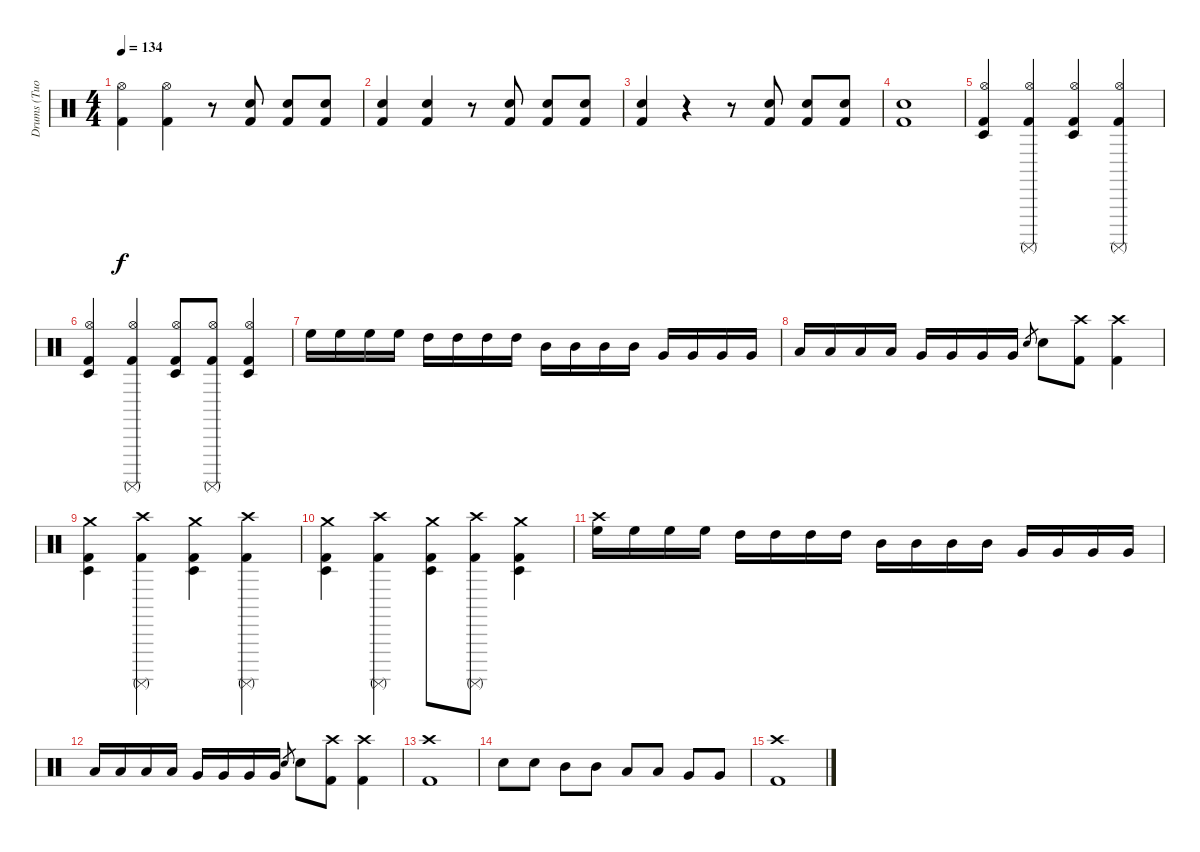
\track ("Drums (Tuomo Lassila)" "Drums (Tuo") {instrument percussion}
\staff {score}
\articulation defaults
\ts (4 4)
\tempo 134
\clef neutral
\ks c
("Hi-Hat (open)" "Kick (hit) 2").4{dy f} ("Hi-Hat (open)" "Kick (hit) 2").4 r.8 ("Snare (hit) 2" "Kick (hit) 2").8 ("Snare (hit) 2" "Kick (hit) 2").8 ("Snare (hit) 2" "Kick (hit) 2").8 |
("Snare (hit) 2" "Kick (hit) 2").4 ("Snare (hit) 2" "Kick (hit) 2").4 r.8 ("Snare (hit) 2" "Kick (hit) 2").8 ("Snare (hit) 2" "Kick (hit) 2").8 ("Snare (hit) 2" "Kick (hit) 2").8 |
("Snare (hit) 2" "Kick (hit) 2").4 r.4 r.8 ("Snare (hit) 2" "Kick (hit) 2").8 ("Snare (hit) 2" "Kick (hit) 2").8 ("Snare (hit) 2" "Kick (hit) 2").8 |
("Snare (hit) 2" "Kick (hit) 2").1 |
("Hi-Hat (open)" "Timbale low (hit)" "Kick (hit) 2").4 ("Hi-Hat (open)" "Surdo (mute)" "Kick (hit) 2").4 ("Hi-Hat (open)" "Timbale low (hit)" "Kick (hit) 2").4 ("Hi-Hat (open)" "Surdo (mute)" "Kick (hit) 2").4 |
("Hi-Hat (open)" "Timbale low (hit)" "Kick (hit) 2").4 ("Hi-Hat (open)" "Surdo (mute)" "Kick (hit) 2").4 ("Hi-Hat (open)" "Timbale low (hit)" "Kick (hit) 2").8 ("Hi-Hat (open)" "Surdo (mute)" "Kick (hit) 2").8 ("Hi-Hat (open)" "Timbale low (hit)" "Kick (hit) 2").4 |
"High Floor Tom (hit)".16 "High Floor Tom (hit)".16 "High Floor Tom (hit)".16 "High Floor Tom (hit)".16 "High Tom (hit)".16 "High Tom (hit)".16 "High Tom (hit)".16 "High Tom (hit)".16 "Mid Tom (hit)".16 "Mid Tom (hit)".16 "Mid Tom (hit)".16 "Mid Tom (hit)".16 "Very Low Tom (hit)".16 "Very Low Tom (hit)".16 "Very Low Tom (hit)".16 "Very Low Tom (hit)".16 |
"Low Tom (hit)".16 "Low Tom (hit)".16 "Low Tom (hit)".16 "Low Tom (hit)".16 "Very Low Tom (hit)".16 "Very Low Tom (hit)".16 "Very Low Tom (hit)".16 "Very Low Tom (hit)".16 "Snare (hit) 2".8{gr} "Snare (hit) 2".8 ("Crash high (hit)" "Kick (hit) 2").8 ("Crash high (hit)" "Kick (hit) 2").4 |
("Crash medium (hit)" "Timbale low (hit)" "Kick (hit) 2").4 ("Crash high (hit)" "Surdo (mute)" "Kick (hit) 2").4 ("Crash medium (hit)" "Timbale low (hit)" "Kick (hit) 2").4 ("Crash high (hit)" "Surdo (mute)" "Kick (hit) 2").4 |
("Crash medium (hit)" "Timbale low (hit)" "Kick (hit) 2").4 ("Crash high (hit)" "Surdo (mute)" "Kick (hit) 2").4 ("Crash medium (hit)" "Timbale low (hit)" "Kick (hit) 2").8 ("Crash high (hit)" "Surdo (mute)" "Kick (hit) 2").8 ("Crash medium (hit)" "Timbale low (hit)" "Kick (hit) 2").4 |
("Crash high (hit)" "High Floor Tom (hit)").16 "High Floor Tom (hit)".16 "High Floor Tom (hit)".16 "High Floor Tom (hit)".16 "High Tom (hit)".16 "High Tom (hit)".16 "High Tom (hit)".16 "High Tom (hit)".16 "Mid Tom (hit)".16 "Mid Tom (hit)".16 "Mid Tom (hit)".16 "Mid Tom (hit)".16 "Very Low Tom (hit)".16 "Very Low Tom (hit)".16 "Very Low Tom (hit)".16 "Very Low Tom (hit)".16 |
"Low Tom (hit)".16 "Low Tom (hit)".16 "Low Tom (hit)".16 "Low Tom (hit)".16 "Very Low Tom (hit)".16 "Very Low Tom (hit)".16 "Very Low Tom (hit)".16 "Very Low Tom (hit)".16 "Snare (hit) 2".8{gr} "Snare (hit) 2".8 ("Crash high (hit)" "Kick (hit) 2").8 ("Crash high (hit)" "Kick (hit) 2").4 |
("Crash high (hit)" "Kick (hit) 2").1 |
"Snare (hit) 2".8 "Snare (hit) 2".8 "Mid Tom (hit)".8 "Mid Tom (hit)".8 "Low Tom (hit)".8 "Low Tom (hit)".8 "Very Low Tom (hit)".8 "Very Low Tom (hit)".8 |
("Crash high (hit)" "Kick (hit) 2").1
